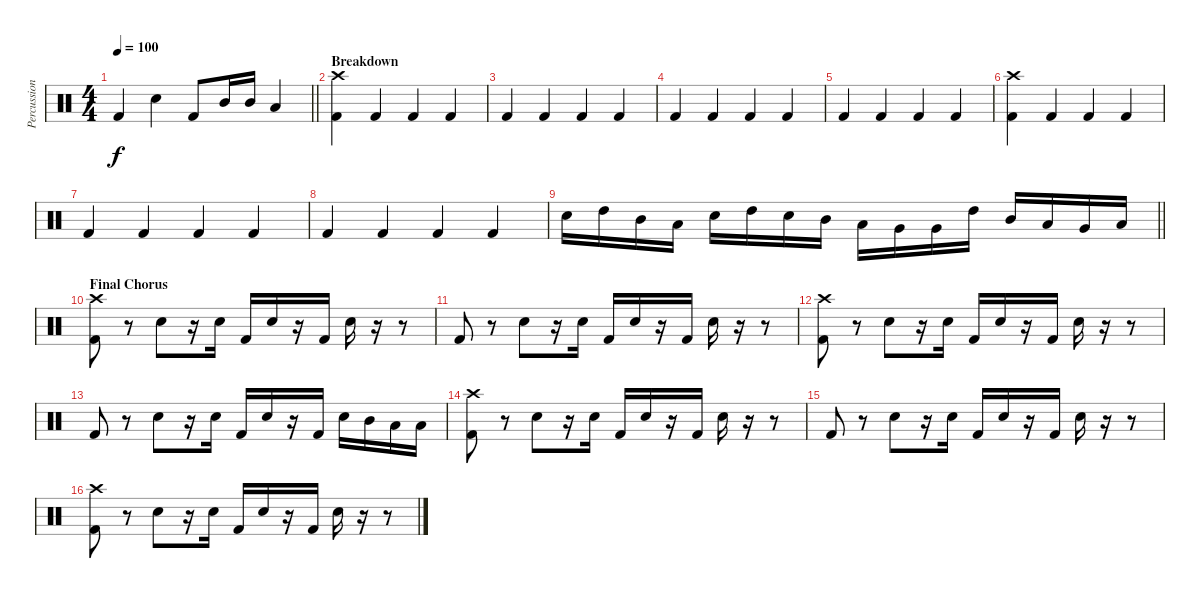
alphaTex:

\track ("Percussion" "Percussion") {instrument percussion}
\staff {score}
\articulation defaults
\ts (4 4)
\tempo 100
\clef neutral
\barLineRight lightlight
\ks c "Kick (hit) 2".4{dy f} "Electric Snare (hit)".4 "Kick (hit) 2".8 "Mid Tom (hit)".16 "Mid Tom (hit)".16 "Low Tom (hit)".4
|
\section ("" "Breakdown")
("Crash high (hit)" "Kick (hit) 2").4 "Kick (hit) 2".4 "Kick (hit) 2".4 "Kick (hit) 2".4 |
"Kick (hit) 2".4 "Kick (hit) 2".4 "Kick (hit) 2".4 "Kick (hit) 2".4 |
"Kick (hit) 2".4 "Kick (hit) 2".4 "Kick (hit) 2".4 "Kick (hit) 2".4 |
"Kick (hit) 2".4 "Kick (hit) 2".4 "Kick (hit) 2".4 "Kick (hit) 2".4 |
("Crash high (hit)" "Kick (hit) 2").4 "Kick (hit) 2".4 "Kick (hit) 2".4 "Kick (hit) 2".4 |
"Kick (hit) 2".4 "Kick (hit) 2".4 "Kick (hit) 2".4 "Kick (hit) 2".4 |
"Kick (hit) 2".4 "Kick (hit) 2".4 "Kick (hit) 2".4 "Kick (hit) 2".4 |
\barLineRight lightlight "Snare (hit) 2".16 "High Tom (hit)".16 "Mid Tom (hit)".16 "Low Tom (hit)".16 "Snare (hit) 2".16 "High Tom (hit)".16 "Snare (hit) 2".16 "Mid Tom (hit)".16 "Low Tom (hit)".16 "Very Low Tom (hit)".16 "Very Low Tom (hit)".16 "High Tom (hit)".16 "Mid Tom (hit)".16 "Low Tom (hit)".16 "Very Low Tom (hit)".16 "Low Floor Tom (hit)".16
|
\section ("" "Final Chorus")
("Crash high (hit)" "Kick (hit) 2").8 r.8 "Electric Snare (hit)".8 r.16 "Electric Snare (hit)".16 "Kick (hit) 2".16 "Electric Snare (hit)".16 r.16 "Kick (hit) 2".16 "Electric Snare (hit)".16 r.16 r.8 |
"Kick (hit) 2".8 r.8 "Electric Snare (hit)".8 r.16 "Electric Snare (hit)".16 "Kick (hit) 2".16 "Electric Snare (hit)".16 r.16 "Kick (hit) 2".16 "Electric Snare (hit)".16 r.16 r.8 |
("Crash high (hit)" "Kick (hit) 2").8 r.8 "Electric Snare (hit)".8 r.16 "Electric Snare (hit)".16 "Kick (hit) 2".16 "Electric Snare (hit)".16 r.16 "Kick (hit) 2".16 "Electric Snare (hit)".16 r.16 r.8 |
"Kick (hit) 2".8 r.8 "Electric Snare (hit)".8 r.16 "Electric Snare (hit)".16 "Kick (hit) 2".16 "Electric Snare (hit)".16 r.16 "Kick (hit) 2".16 "Electric Snare (hit)".16 "Mid Tom (hit)".16 "Low Tom (hit)".16 "Low Floor Tom (hit)".16 |
("Crash high (hit)" "Kick (hit) 2").8 r.8 "Electric Snare (hit)".8 r.16 "Electric Snare (hit)".16 "Kick (hit) 2".16 "Electric Snare (hit)".16 r.16 "Kick (hit) 2".16 "Electric Snare (hit)".16 r.16 r.8 |
"Kick (hit) 2".8 r.8 "Electric Snare (hit)".8 r.16 "Electric Snare (hit)".16 "Kick (hit) 2".16 "Electric Snare (hit)".16 r.16 "Kick (hit) 2".16 "Electric Snare (hit)".16 r.16 r.8 |
("Crash high (hit)" "Kick (hit) 2").8 r.8 "Electric Snare (hit)".8 r.16 "Electric Snare (hit)".16 "Kick (hit) 2".16 "Electric Snare (hit)".16 r.16 "Kick (hit) 2".16 "Electric Snare (hit)".16 r.16 r.8
